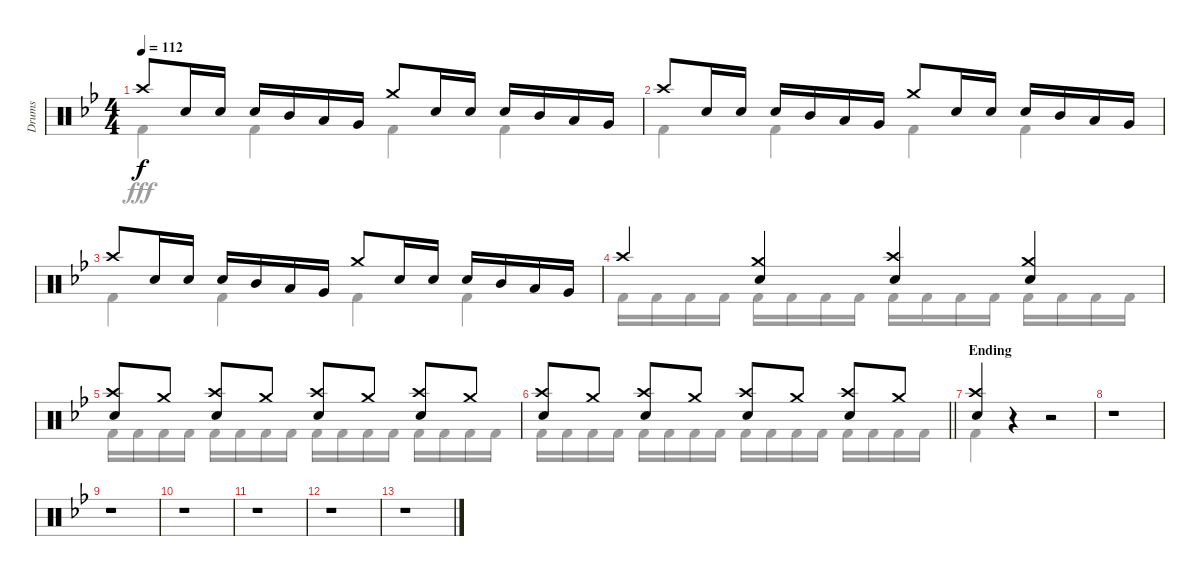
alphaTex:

\track ("Drums" "Drums") {instrument percussion}
\staff {score}
\articulation defaults
\voice
\ts (4 4)
\tempo 112
\clef neutral
\ks bb "Crash high (hit)".8{dy f} "Snare (hit) 2".16 "Snare (hit) 2".16 "Snare (hit) 2".16 "Mid Tom (hit)".16 "Low Tom (hit)".16 "Very Low Tom (hit)".16 "Crash medium (hit)".8 "Snare (hit) 2".16 "Snare (hit) 2".16 "Snare (hit) 2".16 "Mid Tom (hit)".16 "Low Tom (hit)".16 "Very Low Tom (hit)".16
|
"Crash high (hit)".8 "Snare (hit) 2".16 "Snare (hit) 2".16 "Snare (hit) 2".16 "Mid Tom (hit)".16 "Low Tom (hit)".16 "Very Low Tom (hit)".16 "Crash medium (hit)".8 "Snare (hit) 2".16 "Snare (hit) 2".16 "Snare (hit) 2".16 "Mid Tom (hit)".16 "Low Tom (hit)".16 "Very Low Tom (hit)".16 |
"Crash high (hit)".8 "Snare (hit) 2".16 "Snare (hit) 2".16 "Snare (hit) 2".16 "Mid Tom (hit)".16 "Low Tom (hit)".16 "Very Low Tom (hit)".16 "Crash medium (hit)".8 "Snare (hit) 2".16 "Snare (hit) 2".16 "Snare (hit) 2".16 "Mid Tom (hit)".16 "Low Tom (hit)".16 "Very Low Tom (hit)".16 |
"Crash high (hit)".4 ("Crash medium (hit)" "Snare (hit) 2").4 ("Crash high (hit)" "Snare (hit) 2").4 ("Crash medium (hit)" "Snare (hit) 2").4 |
("Crash high (hit)" "Snare (hit) 2").8 "Crash medium (hit)".8 ("Crash high (hit)" "Snare (hit) 2").8 "Crash medium (hit)".8 ("Crash high (hit)" "Snare (hit) 2").8 "Crash medium (hit)".8 ("Crash high (hit)" "Snare (hit) 2").8 "Crash medium (hit)".8 |
\barLineRight lightlight
("Crash high (hit)" "Snare (hit) 2").8 "Crash medium (hit)".8 ("Crash high (hit)" "Snare (hit) 2").8 "Crash medium (hit)".8 ("Crash high (hit)" "Snare (hit) 2").8 "Crash medium (hit)".8 ("Crash high (hit)" "Snare (hit) 2").8 "Crash medium (hit)".8 |
\section ("" "Ending")
("Crash high (hit)" "Snare (hit) 2").4 r.4 r.2 |
r.1 |
r.1 |
r.1 |
r.1 |
r.1 |
r.1
\voice
\clef neutral
\ottava regular
\simile none
\ks bb "Kick (hit) 2".4{dy fff} "Kick (hit) 2".4 "Kick (hit) 2".4 "Kick (hit) 2".4
|
"Kick (hit) 2".4 "Kick (hit) 2".4 "Kick (hit) 2".4 "Kick (hit) 2".4 |
"Kick (hit) 2".4 "Kick (hit) 2".4 "Kick (hit) 2".4 "Kick (hit) 2".4 |
"Kick (hit) 2".16 "Kick (hit) 2".16 "Kick (hit) 2".16 "Kick (hit) 2".16 "Kick (hit) 2".16 "Kick (hit) 2".16 "Kick (hit) 2".16 "Kick (hit) 2".16 "Kick (hit) 2".16 "Kick (hit) 2".16 "Kick (hit) 2".16 "Kick (hit) 2".16 "Kick (hit) 2".16 "Kick (hit) 2".16 "Kick (hit) 2".16 "Kick (hit) 2".16 |
"Kick (hit) 2".16 "Kick (hit) 2".16 "Kick (hit) 2".16 "Kick (hit) 2".16 "Kick (hit) 2".16 "Kick (hit) 2".16 "Kick (hit) 2".16 "Kick (hit) 2".16 "Kick (hit) 2".16 "Kick (hit) 2".16 "Kick (hit) 2".16 "Kick (hit) 2".16 "Kick (hit) 2".16 "Kick (hit) 2".16 "Kick (hit) 2".16 "Kick (hit) 2".16 |
\barLineRight lightlight "Kick (hit) 2".16 "Kick (hit) 2".16 "Kick (hit) 2".16 "Kick (hit) 2".16 "Kick (hit) 2".16 "Kick (hit) 2".16 "Kick (hit) 2".16 "Kick (hit) 2".16 "Kick (hit) 2".16 "Kick (hit) 2".16 "Kick (hit) 2".16 "Kick (hit) 2".16 "Kick (hit) 2".16 "Kick (hit) 2".16 "Kick (hit) 2".16 "Kick (hit) 2".16
|
"Kick (hit) 2".4 r.4 r.2 |
r.1 |
r.1 |
r.1 |
r.1 |
r.1 |
r.1
